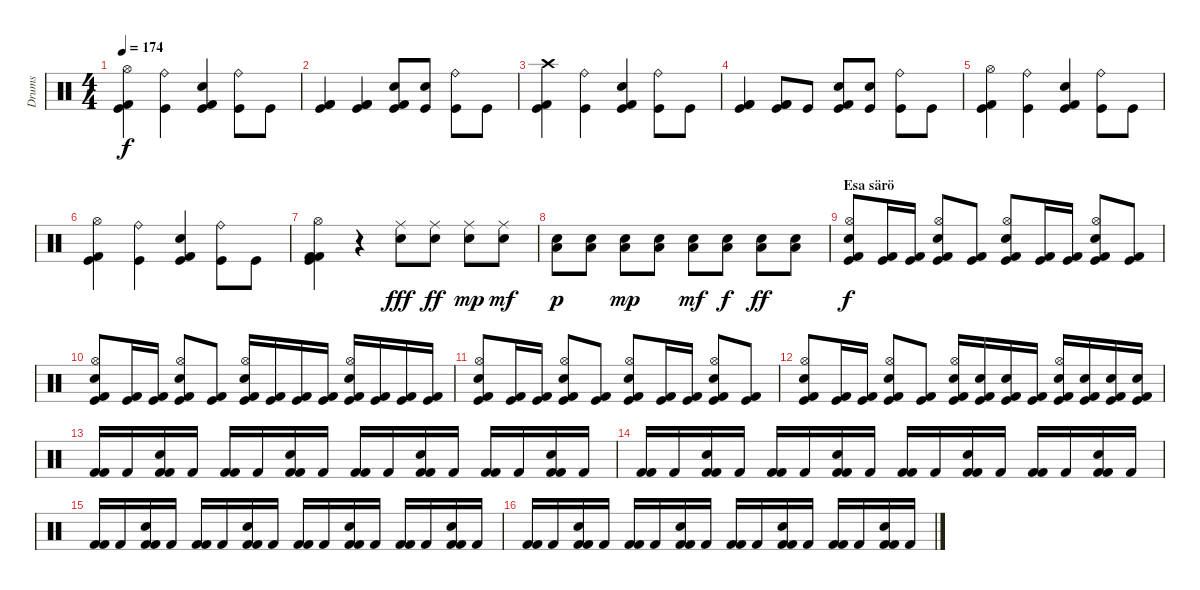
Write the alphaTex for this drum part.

\track ("Drums" "Drums") {instrument percussion}
\staff {score}
\articulation defaults
\ts (4 4)
\tempo 174
\clef neutral
\ks c
("Kick (hit)" "Kick (hit) 2" "Hi-Hat (open)").4{dy f} ("Kick (hit)" "Ride (bell)").4 ("Kick (hit)" "Kick (hit) 2" "Electric Snare (hit)").4 ("Kick (hit)" "Ride (bell)").8 "Kick (hit)".8 |
("Kick (hit)" "Kick (hit) 2" "Kick (hit) 2").4 ("Kick (hit)" "Kick (hit) 2" "Kick (hit) 2").4 ("Kick (hit)" "Kick (hit) 2" "Electric Snare (hit)").8 ("Kick (hit)" "Electric Snare (hit)").8 ("Kick (hit)" "Ride (bell)").8 "Kick (hit)".8 |
("Kick (hit)" "Kick (hit) 2" "Crash high (hit)").4 ("Kick (hit)" "Ride (bell)").4 ("Kick (hit)" "Kick (hit) 2" "Electric Snare (hit)").4 ("Kick (hit)" "Ride (bell)").8 "Kick (hit)".8 |
("Kick (hit)" "Kick (hit) 2" "Kick (hit) 2").4 ("Kick (hit)" "Kick (hit) 2" "Kick (hit) 2").8 "Kick (hit)".8 ("Kick (hit)" "Kick (hit) 2" "Electric Snare (hit)").8 ("Kick (hit)" "Electric Snare (hit)").8 ("Kick (hit)" "Ride (bell)").8 "Kick (hit)".8 |
("Kick (hit)" "Kick (hit) 2" "Hi-Hat (open)").4 ("Kick (hit)" "Ride (bell)").4 ("Kick (hit)" "Kick (hit) 2" "Electric Snare (hit)").4 ("Kick (hit)" "Ride (bell)").8 "Kick (hit)".8 |
("Kick (hit)" "Kick (hit) 2" "Hi-Hat (open)").4 ("Kick (hit)" "Ride (bell)").4 ("Kick (hit)" "Kick (hit) 2" "Electric Snare (hit)").4 ("Kick (hit)" "Ride (bell)").8 "Kick (hit)".8 |
("Kick (hit)" "Kick (hit) 2" "Kick (hit) 2" "Hi-Hat (open)").4 r.4 ("Electric Snare (hit)" "Ride (middle)").8{dy fff} ("Electric Snare (hit)" "Ride (middle)").8{dy ff} ("Electric Snare (hit)" "Ride (middle)").8{dy mp} ("Electric Snare (hit)" "Ride (middle)").8{dy mf} |
("Electric Snare (hit)" "Low Tom (hit)").8{dy p} ("Electric Snare (hit)" "Low Tom (hit)").8 ("Electric Snare (hit)" "Low Tom (hit)").8{dy mp} ("Electric Snare (hit)" "Low Tom (hit)").8 ("Electric Snare (hit)" "Low Tom (hit)").8{dy mf} ("Electric Snare (hit)" "Low Tom (hit)").8{dy f} ("Electric Snare (hit)" "Low Tom (hit)").8{dy ff} ("Electric Snare (hit)" "Low Tom (hit)").8 |
\section ("" "Esa särö")
("Kick (hit)" "Kick (hit) 2" "Electric Snare (hit)" "Hi-Hat (open)").8{dy f} ("Kick (hit)" "Kick (hit) 2").16 ("Kick (hit)" "Kick (hit) 2").16 ("Kick (hit)" "Kick (hit) 2" "Electric Snare (hit)" "Hi-Hat (open)").8 ("Kick (hit)" "Kick (hit) 2").8 ("Kick (hit)" "Kick (hit) 2" "Electric Snare (hit)" "Hi-Hat (open)").8 ("Kick (hit)" "Kick (hit) 2").16 ("Kick (hit)" "Kick (hit) 2").16 ("Kick (hit)" "Kick (hit) 2" "Electric Snare (hit)" "Hi-Hat (open)").8 ("Kick (hit)" "Kick (hit) 2").8 |
("Kick (hit)" "Kick (hit) 2" "Electric Snare (hit)" "Hi-Hat (open)").8 ("Kick (hit)" "Kick (hit) 2").16 ("Kick (hit)" "Kick (hit) 2").16 ("Kick (hit)" "Kick (hit) 2" "Electric Snare (hit)" "Hi-Hat (open)").8 ("Kick (hit)" "Kick (hit) 2").8 ("Kick (hit)" "Kick (hit) 2" "Electric Snare (hit)" "Hi-Hat (open)").16 ("Kick (hit)" "Kick (hit) 2").16 ("Kick (hit)" "Kick (hit) 2").16 ("Kick (hit)" "Kick (hit) 2").16 ("Kick (hit)" "Kick (hit) 2" "Electric Snare (hit)" "Hi-Hat (open)").16 ("Kick (hit)" "Kick (hit) 2").16 ("Kick (hit)" "Kick (hit) 2").16 ("Kick (hit)" "Kick (hit) 2").16 |
("Kick (hit)" "Kick (hit) 2" "Electric Snare (hit)" "Hi-Hat (open)").8 ("Kick (hit)" "Kick (hit) 2").16 ("Kick (hit)" "Kick (hit) 2").16 ("Kick (hit)" "Kick (hit) 2" "Electric Snare (hit)" "Hi-Hat (open)").8 ("Kick (hit)" "Kick (hit) 2").8 ("Kick (hit)" "Kick (hit) 2" "Electric Snare (hit)" "Hi-Hat (open)").8 ("Kick (hit)" "Kick (hit) 2").16 ("Kick (hit)" "Kick (hit) 2").16 ("Kick (hit)" "Kick (hit) 2" "Electric Snare (hit)" "Hi-Hat (open)").8 ("Kick (hit)" "Kick (hit) 2").8 |
("Kick (hit)" "Kick (hit) 2" "Electric Snare (hit)" "Hi-Hat (open)").8 ("Kick (hit)" "Kick (hit) 2").16 ("Kick (hit)" "Kick (hit) 2").16 ("Kick (hit)" "Kick (hit) 2" "Electric Snare (hit)" "Hi-Hat (open)").8 ("Kick (hit)" "Kick (hit) 2").8 ("Kick (hit)" "Kick (hit) 2" "Electric Snare (hit)" "Hi-Hat (open)").16 ("Kick (hit)" "Kick (hit) 2" "Electric Snare (hit)").16 ("Kick (hit)" "Kick (hit) 2" "Electric Snare (hit)").16 ("Kick (hit)" "Kick (hit) 2").16 ("Kick (hit)" "Kick (hit) 2" "Electric Snare (hit)" "Hi-Hat (open)").16 ("Kick (hit)" "Kick (hit) 2" "Electric Snare (hit)").16 ("Kick (hit)" "Kick (hit) 2" "Electric Snare (hit)").16 ("Kick (hit)" "Kick (hit) 2" "Electric Snare (hit)").16 |
("Kick (hit) 2" "Kick (hit) 2").16 "Kick (hit) 2".16 ("Kick (hit) 2" "Kick (hit) 2" "Electric Snare (hit)").16 "Kick (hit) 2".16 ("Kick (hit) 2" "Kick (hit) 2").16 "Kick (hit) 2".16 ("Kick (hit) 2" "Kick (hit) 2" "Electric Snare (hit)").16 "Kick (hit) 2".16 ("Kick (hit) 2" "Kick (hit) 2").16 "Kick (hit) 2".16 ("Kick (hit) 2" "Kick (hit) 2" "Electric Snare (hit)").16 "Kick (hit) 2".16 ("Kick (hit) 2" "Kick (hit) 2").16 "Kick (hit) 2".16 ("Kick (hit) 2" "Kick (hit) 2" "Electric Snare (hit)").16 "Kick (hit) 2".16 |
("Kick (hit) 2" "Kick (hit) 2").16 "Kick (hit) 2".16 ("Kick (hit) 2" "Kick (hit) 2" "Electric Snare (hit)").16 "Kick (hit) 2".16 ("Kick (hit) 2" "Kick (hit) 2").16 "Kick (hit) 2".16 ("Kick (hit) 2" "Kick (hit) 2" "Electric Snare (hit)").16 "Kick (hit) 2".16 ("Kick (hit) 2" "Kick (hit) 2").16 "Kick (hit) 2".16 ("Kick (hit) 2" "Kick (hit) 2" "Electric Snare (hit)").16 "Kick (hit) 2".16 ("Kick (hit) 2" "Kick (hit) 2").16 "Kick (hit) 2".16 ("Kick (hit) 2" "Kick (hit) 2" "Electric Snare (hit)").16 "Kick (hit) 2".16 |
("Kick (hit) 2" "Kick (hit) 2").16 "Kick (hit) 2".16 ("Kick (hit) 2" "Kick (hit) 2" "Electric Snare (hit)").16 "Kick (hit) 2".16 ("Kick (hit) 2" "Kick (hit) 2").16 "Kick (hit) 2".16 ("Kick (hit) 2" "Kick (hit) 2" "Electric Snare (hit)").16 "Kick (hit) 2".16 ("Kick (hit) 2" "Kick (hit) 2").16 "Kick (hit) 2".16 ("Kick (hit) 2" "Kick (hit) 2" "Electric Snare (hit)").16 "Kick (hit) 2".16 ("Kick (hit) 2" "Kick (hit) 2").16 "Kick (hit) 2".16 ("Kick (hit) 2" "Kick (hit) 2" "Electric Snare (hit)").16 "Kick (hit) 2".16 |
("Kick (hit) 2" "Kick (hit) 2").16 "Kick (hit) 2".16 ("Kick (hit) 2" "Kick (hit) 2" "Electric Snare (hit)").16 "Kick (hit) 2".16 ("Kick (hit) 2" "Kick (hit) 2").16 "Kick (hit) 2".16 ("Kick (hit) 2" "Kick (hit) 2" "Electric Snare (hit)").16 "Kick (hit) 2".16 ("Kick (hit) 2" "Kick (hit) 2").16 "Kick (hit) 2".16 ("Kick (hit) 2" "Kick (hit) 2" "Electric Snare (hit)").16 "Kick (hit) 2".16 ("Kick (hit) 2" "Kick (hit) 2").16 "Kick (hit) 2".16 ("Kick (hit) 2" "Kick (hit) 2" "Electric Snare (hit)").16 "Kick (hit) 2".16
